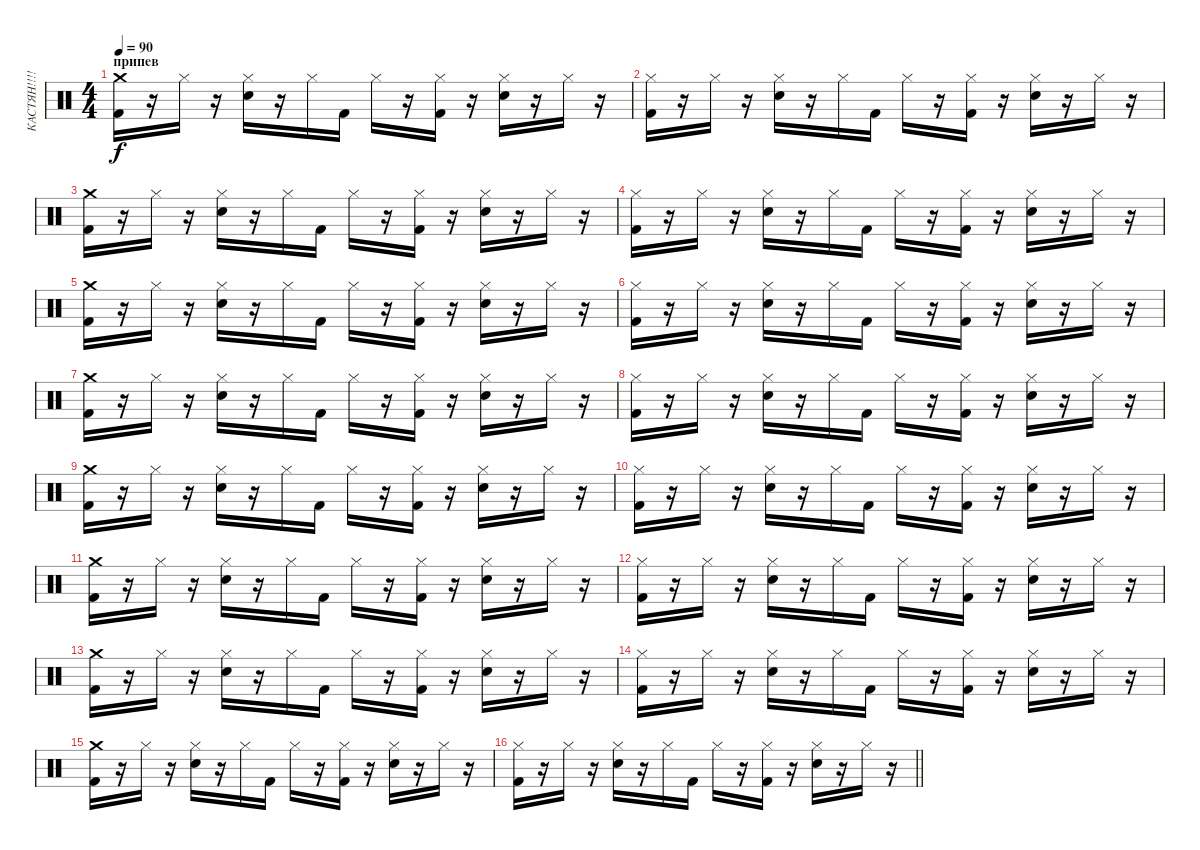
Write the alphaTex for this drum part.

\track ("КАСТЯН!!!!" "КАСТЯН!!!!") {instrument percussion}
\staff {score}
\articulation defaults
\ts (4 4)
\section ("" "припев")
\tempo 90
\clef neutral
\ks c
("Crash medium (hit)" "Kick (hit) 2").16{dy f} r.16 "Hi-Hat (closed)".16 r.16 ("Hi-Hat (closed)" "Snare (hit) 2").16 r.16 "Hi-Hat (closed)".16 "Kick (hit) 2".16 "Hi-Hat (closed)".16 r.16 ("Hi-Hat (closed)" "Kick (hit) 2").16 r.16 ("Hi-Hat (closed)" "Snare (hit) 2").16 r.16 "Hi-Hat (closed)".16 r.16 |
("Hi-Hat (closed)" "Kick (hit) 2").16 r.16 "Hi-Hat (closed)".16 r.16 ("Hi-Hat (closed)" "Snare (hit) 2").16 r.16 "Hi-Hat (closed)".16 "Kick (hit) 2".16 "Hi-Hat (closed)".16 r.16 ("Hi-Hat (closed)" "Kick (hit) 2").16 r.16 ("Hi-Hat (closed)" "Snare (hit) 2").16 r.16 "Hi-Hat (closed)".16 r.16 |
("Crash medium (hit)" "Kick (hit) 2").16 r.16 "Hi-Hat (closed)".16 r.16 ("Hi-Hat (closed)" "Snare (hit) 2").16 r.16 "Hi-Hat (closed)".16 "Kick (hit) 2".16 "Hi-Hat (closed)".16 r.16 ("Hi-Hat (closed)" "Kick (hit) 2").16 r.16 ("Hi-Hat (closed)" "Snare (hit) 2").16 r.16 "Hi-Hat (closed)".16 r.16 |
("Hi-Hat (closed)" "Kick (hit) 2").16 r.16 "Hi-Hat (closed)".16 r.16 ("Hi-Hat (closed)" "Snare (hit) 2").16 r.16 "Hi-Hat (closed)".16 "Kick (hit) 2".16 "Hi-Hat (closed)".16 r.16 ("Hi-Hat (closed)" "Kick (hit) 2").16 r.16 ("Hi-Hat (closed)" "Snare (hit) 2").16 r.16 "Hi-Hat (closed)".16 r.16 |
("Crash medium (hit)" "Kick (hit) 2").16 r.16 "Hi-Hat (closed)".16 r.16 ("Hi-Hat (closed)" "Snare (hit) 2").16 r.16 "Hi-Hat (closed)".16 "Kick (hit) 2".16 "Hi-Hat (closed)".16 r.16 ("Hi-Hat (closed)" "Kick (hit) 2").16 r.16 ("Hi-Hat (closed)" "Snare (hit) 2").16 r.16 "Hi-Hat (closed)".16 r.16 |
("Hi-Hat (closed)" "Kick (hit) 2").16 r.16 "Hi-Hat (closed)".16 r.16 ("Hi-Hat (closed)" "Snare (hit) 2").16 r.16 "Hi-Hat (closed)".16 "Kick (hit) 2".16 "Hi-Hat (closed)".16 r.16 ("Hi-Hat (closed)" "Kick (hit) 2").16 r.16 ("Hi-Hat (closed)" "Snare (hit) 2").16 r.16 "Hi-Hat (closed)".16 r.16 |
("Crash medium (hit)" "Kick (hit) 2").16 r.16 "Hi-Hat (closed)".16 r.16 ("Hi-Hat (closed)" "Snare (hit) 2").16 r.16 "Hi-Hat (closed)".16 "Kick (hit) 2".16 "Hi-Hat (closed)".16 r.16 ("Hi-Hat (closed)" "Kick (hit) 2").16 r.16 ("Hi-Hat (closed)" "Snare (hit) 2").16 r.16 "Hi-Hat (closed)".16 r.16 |
("Hi-Hat (closed)" "Kick (hit) 2").16 r.16 "Hi-Hat (closed)".16 r.16 ("Hi-Hat (closed)" "Snare (hit) 2").16 r.16 "Hi-Hat (closed)".16 "Kick (hit) 2".16 "Hi-Hat (closed)".16 r.16 ("Hi-Hat (closed)" "Kick (hit) 2").16 r.16 ("Hi-Hat (closed)" "Snare (hit) 2").16 r.16 "Hi-Hat (closed)".16 r.16 |
("Crash medium (hit)" "Kick (hit) 2").16 r.16 "Hi-Hat (closed)".16 r.16 ("Hi-Hat (closed)" "Snare (hit) 2").16 r.16 "Hi-Hat (closed)".16 "Kick (hit) 2".16 "Hi-Hat (closed)".16 r.16 ("Hi-Hat (closed)" "Kick (hit) 2").16 r.16 ("Hi-Hat (closed)" "Snare (hit) 2").16 r.16 "Hi-Hat (closed)".16 r.16 |
("Hi-Hat (closed)" "Kick (hit) 2").16 r.16 "Hi-Hat (closed)".16 r.16 ("Hi-Hat (closed)" "Snare (hit) 2").16 r.16 "Hi-Hat (closed)".16 "Kick (hit) 2".16 "Hi-Hat (closed)".16 r.16 ("Hi-Hat (closed)" "Kick (hit) 2").16 r.16 ("Hi-Hat (closed)" "Snare (hit) 2").16 r.16 "Hi-Hat (closed)".16 r.16 |
("Crash medium (hit)" "Kick (hit) 2").16 r.16 "Hi-Hat (closed)".16 r.16 ("Hi-Hat (closed)" "Snare (hit) 2").16 r.16 "Hi-Hat (closed)".16 "Kick (hit) 2".16 "Hi-Hat (closed)".16 r.16 ("Hi-Hat (closed)" "Kick (hit) 2").16 r.16 ("Hi-Hat (closed)" "Snare (hit) 2").16 r.16 "Hi-Hat (closed)".16 r.16 |
("Hi-Hat (closed)" "Kick (hit) 2").16 r.16 "Hi-Hat (closed)".16 r.16 ("Hi-Hat (closed)" "Snare (hit) 2").16 r.16 "Hi-Hat (closed)".16 "Kick (hit) 2".16 "Hi-Hat (closed)".16 r.16 ("Hi-Hat (closed)" "Kick (hit) 2").16 r.16 ("Hi-Hat (closed)" "Snare (hit) 2").16 r.16 "Hi-Hat (closed)".16 r.16 |
("Crash medium (hit)" "Kick (hit) 2").16 r.16 "Hi-Hat (closed)".16 r.16 ("Hi-Hat (closed)" "Snare (hit) 2").16 r.16 "Hi-Hat (closed)".16 "Kick (hit) 2".16 "Hi-Hat (closed)".16 r.16 ("Hi-Hat (closed)" "Kick (hit) 2").16 r.16 ("Hi-Hat (closed)" "Snare (hit) 2").16 r.16 "Hi-Hat (closed)".16 r.16 |
("Hi-Hat (closed)" "Kick (hit) 2").16 r.16 "Hi-Hat (closed)".16 r.16 ("Hi-Hat (closed)" "Snare (hit) 2").16 r.16 "Hi-Hat (closed)".16 "Kick (hit) 2".16 "Hi-Hat (closed)".16 r.16 ("Hi-Hat (closed)" "Kick (hit) 2").16 r.16 ("Hi-Hat (closed)" "Snare (hit) 2").16 r.16 "Hi-Hat (closed)".16 r.16 |
("Crash medium (hit)" "Kick (hit) 2").16 r.16 "Hi-Hat (closed)".16 r.16 ("Hi-Hat (closed)" "Snare (hit) 2").16 r.16 "Hi-Hat (closed)".16 "Kick (hit) 2".16 "Hi-Hat (closed)".16 r.16 ("Hi-Hat (closed)" "Kick (hit) 2").16 r.16 ("Hi-Hat (closed)" "Snare (hit) 2").16 r.16 "Hi-Hat (closed)".16 r.16 |
\barLineRight lightlight
("Hi-Hat (closed)" "Kick (hit) 2").16 r.16 "Hi-Hat (closed)".16 r.16 ("Hi-Hat (closed)" "Snare (hit) 2").16 r.16 "Hi-Hat (closed)".16 "Kick (hit) 2".16 "Hi-Hat (closed)".16 r.16 ("Hi-Hat (closed)" "Kick (hit) 2").16 r.16 ("Hi-Hat (closed)" "Snare (hit) 2").16 r.16 "Hi-Hat (closed)".16 r.16
